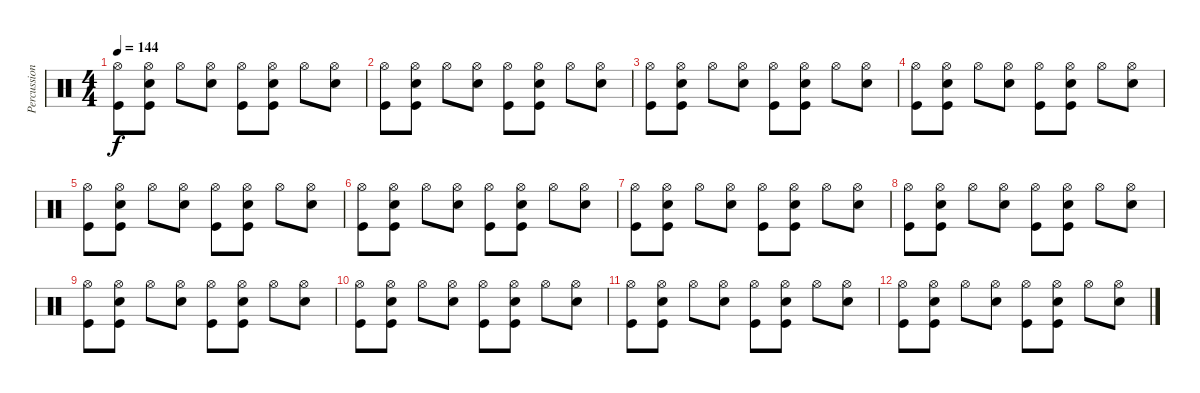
\track ("Percussion" "Percussion") {instrument percussion}
\staff {score}
\articulation defaults
\ts (4 4)
\tempo 144
\clef neutral
\ks c
("Hi-Hat (open)" "Kick (hit)").8{dy f} ("Hi-Hat (open)" "Snare (hit) 2" "Kick (hit)").8 "Hi-Hat (open)".8 ("Hi-Hat (open)" "Snare (hit) 2").8 ("Hi-Hat (open)" "Kick (hit)").8 ("Hi-Hat (open)" "Snare (hit) 2" "Kick (hit)").8 "Hi-Hat (open)".8 ("Hi-Hat (open)" "Snare (hit) 2").8 |
("Hi-Hat (open)" "Kick (hit)").8 ("Hi-Hat (open)" "Snare (hit) 2" "Kick (hit)").8 "Hi-Hat (open)".8 ("Hi-Hat (open)" "Snare (hit) 2").8 ("Hi-Hat (open)" "Kick (hit)").8 ("Hi-Hat (open)" "Snare (hit) 2" "Kick (hit)").8 "Hi-Hat (open)".8 ("Hi-Hat (open)" "Snare (hit) 2").8 |
("Hi-Hat (open)" "Kick (hit)").8 ("Hi-Hat (open)" "Snare (hit) 2" "Kick (hit)").8 "Hi-Hat (open)".8 ("Hi-Hat (open)" "Snare (hit) 2").8 ("Hi-Hat (open)" "Kick (hit)").8 ("Hi-Hat (open)" "Snare (hit) 2" "Kick (hit)").8 "Hi-Hat (open)".8 ("Hi-Hat (open)" "Snare (hit) 2").8 |
("Hi-Hat (open)" "Kick (hit)").8 ("Hi-Hat (open)" "Snare (hit) 2" "Kick (hit)").8 "Hi-Hat (open)".8 ("Hi-Hat (open)" "Snare (hit) 2").8 ("Hi-Hat (open)" "Kick (hit)").8 ("Hi-Hat (open)" "Snare (hit) 2" "Kick (hit)").8 "Hi-Hat (open)".8 ("Hi-Hat (open)" "Snare (hit) 2").8 |
("Hi-Hat (open)" "Kick (hit)").8 ("Hi-Hat (open)" "Snare (hit) 2" "Kick (hit)").8 "Hi-Hat (open)".8 ("Hi-Hat (open)" "Snare (hit) 2").8 ("Hi-Hat (open)" "Kick (hit)").8 ("Hi-Hat (open)" "Snare (hit) 2" "Kick (hit)").8 "Hi-Hat (open)".8 ("Hi-Hat (open)" "Snare (hit) 2").8 |
("Hi-Hat (open)" "Kick (hit)").8 ("Hi-Hat (open)" "Snare (hit) 2" "Kick (hit)").8 "Hi-Hat (open)".8 ("Hi-Hat (open)" "Snare (hit) 2").8 ("Hi-Hat (open)" "Kick (hit)").8 ("Hi-Hat (open)" "Snare (hit) 2" "Kick (hit)").8 "Hi-Hat (open)".8 ("Hi-Hat (open)" "Snare (hit) 2").8 |
("Hi-Hat (open)" "Kick (hit)").8 ("Hi-Hat (open)" "Snare (hit) 2" "Kick (hit)").8 "Hi-Hat (open)".8 ("Hi-Hat (open)" "Snare (hit) 2").8 ("Hi-Hat (open)" "Kick (hit)").8 ("Hi-Hat (open)" "Snare (hit) 2" "Kick (hit)").8 "Hi-Hat (open)".8 ("Hi-Hat (open)" "Snare (hit) 2").8 |
("Hi-Hat (open)" "Kick (hit)").8 ("Hi-Hat (open)" "Snare (hit) 2" "Kick (hit)").8 "Hi-Hat (open)".8 ("Hi-Hat (open)" "Snare (hit) 2").8 ("Hi-Hat (open)" "Kick (hit)").8 ("Hi-Hat (open)" "Snare (hit) 2" "Kick (hit)").8 "Hi-Hat (open)".8 ("Hi-Hat (open)" "Snare (hit) 2").8 |
("Hi-Hat (open)" "Kick (hit)").8 ("Hi-Hat (open)" "Snare (hit) 2" "Kick (hit)").8 "Hi-Hat (open)".8 ("Hi-Hat (open)" "Snare (hit) 2").8 ("Hi-Hat (open)" "Kick (hit)").8 ("Hi-Hat (open)" "Snare (hit) 2" "Kick (hit)").8 "Hi-Hat (open)".8 ("Hi-Hat (open)" "Snare (hit) 2").8 |
("Hi-Hat (open)" "Kick (hit)").8 ("Hi-Hat (open)" "Snare (hit) 2" "Kick (hit)").8 "Hi-Hat (open)".8 ("Hi-Hat (open)" "Snare (hit) 2").8 ("Hi-Hat (open)" "Kick (hit)").8 ("Hi-Hat (open)" "Snare (hit) 2" "Kick (hit)").8 "Hi-Hat (open)".8 ("Hi-Hat (open)" "Snare (hit) 2").8 |
("Hi-Hat (open)" "Kick (hit)").8 ("Hi-Hat (open)" "Snare (hit) 2" "Kick (hit)").8 "Hi-Hat (open)".8 ("Hi-Hat (open)" "Snare (hit) 2").8 ("Hi-Hat (open)" "Kick (hit)").8 ("Hi-Hat (open)" "Snare (hit) 2" "Kick (hit)").8 "Hi-Hat (open)".8 ("Hi-Hat (open)" "Snare (hit) 2").8 |
("Hi-Hat (open)" "Kick (hit)").8 ("Hi-Hat (open)" "Snare (hit) 2" "Kick (hit)").8 "Hi-Hat (open)".8 ("Hi-Hat (open)" "Snare (hit) 2").8 ("Hi-Hat (open)" "Kick (hit)").8 ("Hi-Hat (open)" "Snare (hit) 2" "Kick (hit)").8 "Hi-Hat (open)".8 ("Hi-Hat (open)" "Snare (hit) 2").8
